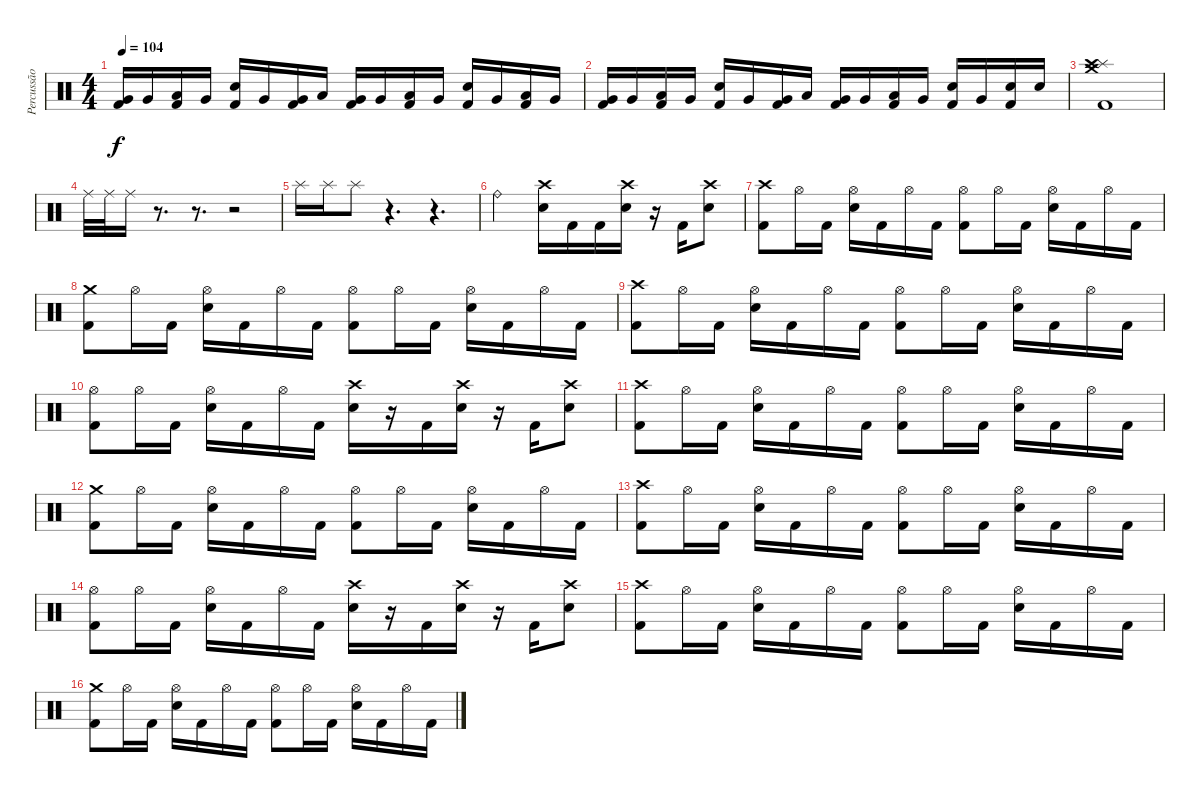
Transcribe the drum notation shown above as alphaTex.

\track ("Percussão" "Percussão") {instrument percussion}
\staff {score}
\articulation defaults
\ts (4 4)
\tempo 104
\clef neutral
\ks c
("Very Low Tom (hit)" "Kick (hit) 2").16{dy f} "Very Low Tom (hit)".16 ("Low Tom (hit)" "Kick (hit) 2").16 "Very Low Tom (hit)".16 ("Electric Snare (hit)" "Kick (hit) 2").16 "Very Low Tom (hit)".16 ("Very Low Tom (hit)" "Kick (hit) 2").16 "Low Tom (hit)".16 ("Very Low Tom (hit)" "Kick (hit) 2").16 "Very Low Tom (hit)".16 ("Low Tom (hit)" "Kick (hit) 2").16 "Very Low Tom (hit)".16 ("Electric Snare (hit)" "Kick (hit) 2").16 "Very Low Tom (hit)".16 ("Low Tom (hit)" "Kick (hit) 2").16 "Very Low Tom (hit)".16 |
("Very Low Tom (hit)" "Kick (hit) 2").16 "Very Low Tom (hit)".16 ("Low Tom (hit)" "Kick (hit) 2").16 "Very Low Tom (hit)".16 ("Electric Snare (hit)" "Kick (hit) 2").16 "Very Low Tom (hit)".16 ("Very Low Tom (hit)" "Kick (hit) 2").16 "Low Tom (hit)".16 ("Very Low Tom (hit)" "Kick (hit) 2").16 "Very Low Tom (hit)".16 ("Low Tom (hit)" "Kick (hit) 2").16 "Very Low Tom (hit)".16 ("Electric Snare (hit)" "Kick (hit) 2").16 "Very Low Tom (hit)".16 ("Electric Snare (hit)" "Kick (hit) 2").16 "Electric Snare (hit)".16 |
("Splash (hit)" "Crash medium (hit)" "Crash high (hit)" "Kick (hit) 2").1 |
"Ride (middle)".32 "Ride (middle)".32 "Ride (middle)".16 r.8{d} r.8{d} r.2 |
"Splash (hit)".16 "Splash (hit)".16 "Splash (hit)".8 r.4{d} r.4{d} |
"Ride (bell)".2 ("Crash high (hit)" "Electric Snare (hit)").16 "Kick (hit) 2".16 "Kick (hit) 2".16 ("Crash high (hit)" "Electric Snare (hit)").16 r.16 "Kick (hit) 2".16 ("Crash high (hit)" "Electric Snare (hit)").8 |
("Crash high (hit)" "Kick (hit) 2").8 "Hi-Hat (open)".16 "Kick (hit) 2".16 ("Hi-Hat (open)" "Electric Snare (hit)").16 "Kick (hit) 2".16 "Hi-Hat (open)".16 "Kick (hit) 2".16 ("Hi-Hat (open)" "Kick (hit) 2").8 "Hi-Hat (open)".16 "Kick (hit) 2".16 ("Hi-Hat (open)" "Electric Snare (hit)").16 "Kick (hit) 2".16 "Hi-Hat (open)".16 "Kick (hit) 2".16 |
("Crash medium (hit)" "Kick (hit) 2").8 "Hi-Hat (open)".16 "Kick (hit) 2".16 ("Hi-Hat (open)" "Electric Snare (hit)").16 "Kick (hit) 2".16 "Hi-Hat (open)".16 "Kick (hit) 2".16 ("Hi-Hat (open)" "Kick (hit) 2").8 "Hi-Hat (open)".16 "Kick (hit) 2".16 ("Hi-Hat (open)" "Electric Snare (hit)").16 "Kick (hit) 2".16 "Hi-Hat (open)".16 "Kick (hit) 2".16 |
("Crash high (hit)" "Kick (hit) 2").8 "Hi-Hat (open)".16 "Kick (hit) 2".16 ("Hi-Hat (open)" "Electric Snare (hit)").16 "Kick (hit) 2".16 "Hi-Hat (open)".16 "Kick (hit) 2".16 ("Hi-Hat (open)" "Kick (hit) 2").8 "Hi-Hat (open)".16 "Kick (hit) 2".16 ("Hi-Hat (open)" "Electric Snare (hit)").16 "Kick (hit) 2".16 "Hi-Hat (open)".16 "Kick (hit) 2".16 |
("Hi-Hat (open)" "Kick (hit) 2").8 "Hi-Hat (open)".16 "Kick (hit) 2".16 ("Hi-Hat (open)" "Electric Snare (hit)").16 "Kick (hit) 2".16 "Hi-Hat (open)".16 "Kick (hit) 2".16 ("Crash high (hit)" "Electric Snare (hit)").16 r.16 "Kick (hit) 2".16 ("Crash high (hit)" "Electric Snare (hit)").16 r.16 "Kick (hit) 2".16 ("Crash high (hit)" "Electric Snare (hit)").8 |
("Crash high (hit)" "Kick (hit) 2").8 "Hi-Hat (open)".16 "Kick (hit) 2".16 ("Hi-Hat (open)" "Electric Snare (hit)").16 "Kick (hit) 2".16 "Hi-Hat (open)".16 "Kick (hit) 2".16 ("Hi-Hat (open)" "Kick (hit) 2").8 "Hi-Hat (open)".16 "Kick (hit) 2".16 ("Hi-Hat (open)" "Electric Snare (hit)").16 "Kick (hit) 2".16 "Hi-Hat (open)".16 "Kick (hit) 2".16 |
("Crash medium (hit)" "Kick (hit) 2").8 "Hi-Hat (open)".16 "Kick (hit) 2".16 ("Hi-Hat (open)" "Electric Snare (hit)").16 "Kick (hit) 2".16 "Hi-Hat (open)".16 "Kick (hit) 2".16 ("Hi-Hat (open)" "Kick (hit) 2").8 "Hi-Hat (open)".16 "Kick (hit) 2".16 ("Hi-Hat (open)" "Electric Snare (hit)").16 "Kick (hit) 2".16 "Hi-Hat (open)".16 "Kick (hit) 2".16 |
("Crash high (hit)" "Kick (hit) 2").8 "Hi-Hat (open)".16 "Kick (hit) 2".16 ("Hi-Hat (open)" "Electric Snare (hit)").16 "Kick (hit) 2".16 "Hi-Hat (open)".16 "Kick (hit) 2".16 ("Hi-Hat (open)" "Kick (hit) 2").8 "Hi-Hat (open)".16 "Kick (hit) 2".16 ("Hi-Hat (open)" "Electric Snare (hit)").16 "Kick (hit) 2".16 "Hi-Hat (open)".16 "Kick (hit) 2".16 |
("Hi-Hat (open)" "Kick (hit) 2").8 "Hi-Hat (open)".16 "Kick (hit) 2".16 ("Hi-Hat (open)" "Electric Snare (hit)").16 "Kick (hit) 2".16 "Hi-Hat (open)".16 "Kick (hit) 2".16 ("Crash high (hit)" "Electric Snare (hit)").16 r.16 "Kick (hit) 2".16 ("Crash high (hit)" "Electric Snare (hit)").16 r.16 "Kick (hit) 2".16 ("Crash high (hit)" "Electric Snare (hit)").8 |
("Crash high (hit)" "Kick (hit) 2").8 "Hi-Hat (open)".16 "Kick (hit) 2".16 ("Hi-Hat (open)" "Electric Snare (hit)").16 "Kick (hit) 2".16 "Hi-Hat (open)".16 "Kick (hit) 2".16 ("Hi-Hat (open)" "Kick (hit) 2").8 "Hi-Hat (open)".16 "Kick (hit) 2".16 ("Hi-Hat (open)" "Electric Snare (hit)").16 "Kick (hit) 2".16 "Hi-Hat (open)".16 "Kick (hit) 2".16 |
("Crash medium (hit)" "Kick (hit) 2").8 "Hi-Hat (open)".16 "Kick (hit) 2".16 ("Hi-Hat (open)" "Electric Snare (hit)").16 "Kick (hit) 2".16 "Hi-Hat (open)".16 "Kick (hit) 2".16 ("Hi-Hat (open)" "Kick (hit) 2").8 "Hi-Hat (open)".16 "Kick (hit) 2".16 ("Hi-Hat (open)" "Electric Snare (hit)").16 "Kick (hit) 2".16 "Hi-Hat (open)".16 "Kick (hit) 2".16
